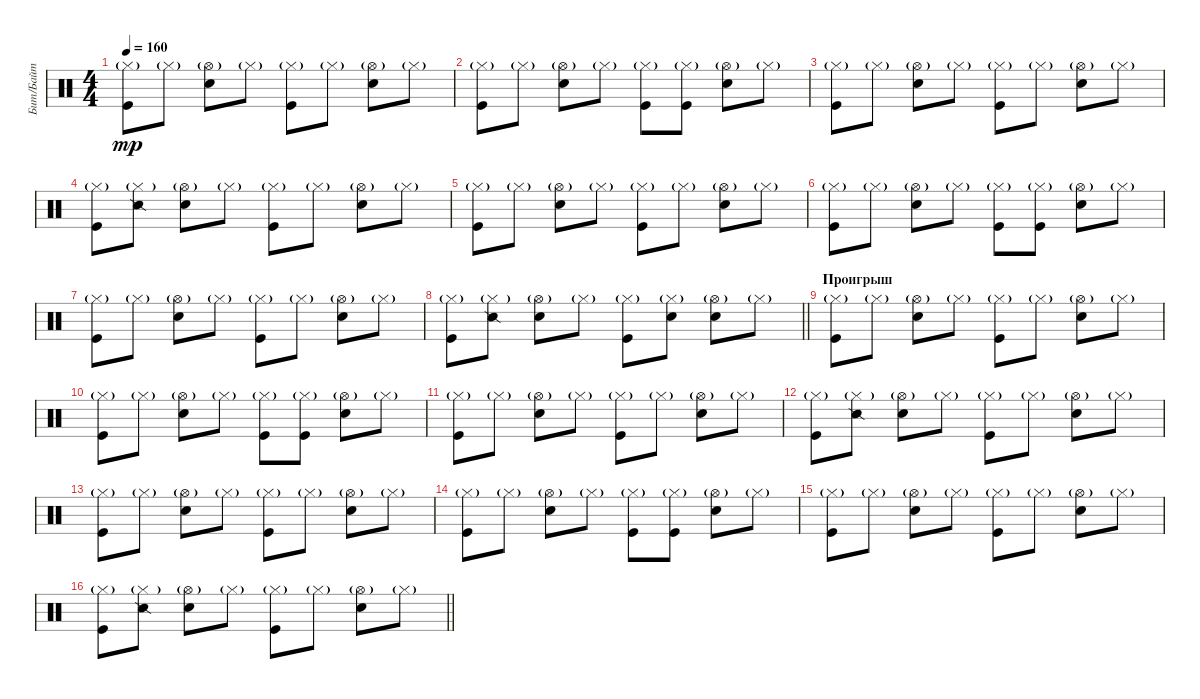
\track ("Бит/Байт" "Бит/Байт") {instrument percussion}
\staff {score}
\articulation defaults
\ts (4 4)
\tempo 160
\clef neutral
\ks c
("Hi-Hat (closed)"{g} "Kick (hit)").8{dy mp} "Hi-Hat (closed)"{g}.8 ("Hi-Hat (open)"{g} "Snare (hit) 2").8 "Hi-Hat (closed)"{g}.8 ("Hi-Hat (closed)"{g} "Kick (hit)").8 "Hi-Hat (closed)"{g}.8 ("Hi-Hat (open)"{g} "Snare (hit) 2").8 "Hi-Hat (closed)"{g}.8 |
("Hi-Hat (closed)"{g} "Kick (hit)").8 "Hi-Hat (closed)"{g}.8 ("Hi-Hat (open)"{g} "Snare (hit) 2").8 "Hi-Hat (closed)"{g}.8 ("Hi-Hat (closed)"{g} "Kick (hit)").8 ("Hi-Hat (closed)"{g} "Kick (hit)").8 ("Hi-Hat (open)"{g} "Snare (hit) 2").8 "Hi-Hat (closed)"{g}.8 |
("Hi-Hat (closed)"{g} "Kick (hit)").8 "Hi-Hat (closed)"{g}.8 ("Hi-Hat (open)"{g} "Snare (hit) 2").8 "Hi-Hat (closed)"{g}.8 ("Hi-Hat (closed)"{g} "Kick (hit)").8 "Hi-Hat (closed)"{g}.8 ("Hi-Hat (open)"{g} "Snare (hit) 2").8 "Hi-Hat (closed)"{g}.8 |
("Hi-Hat (closed)"{g} "Kick (hit)").8 ("Hi-Hat (closed)"{g} "Snare (side stick) 2").8 ("Hi-Hat (open)"{g} "Snare (hit) 2").8 "Hi-Hat (closed)"{g}.8 ("Hi-Hat (closed)"{g} "Kick (hit)").8 "Hi-Hat (closed)"{g}.8 ("Hi-Hat (open)"{g} "Snare (hit) 2").8 "Hi-Hat (closed)"{g}.8 |
("Hi-Hat (closed)"{g} "Kick (hit)").8 "Hi-Hat (closed)"{g}.8 ("Hi-Hat (open)"{g} "Snare (hit) 2").8 "Hi-Hat (closed)"{g}.8 ("Hi-Hat (closed)"{g} "Kick (hit)").8 "Hi-Hat (closed)"{g}.8 ("Hi-Hat (open)"{g} "Snare (hit) 2").8 "Hi-Hat (closed)"{g}.8 |
("Hi-Hat (closed)"{g} "Kick (hit)").8 "Hi-Hat (closed)"{g}.8 ("Hi-Hat (open)"{g} "Snare (hit) 2").8 "Hi-Hat (closed)"{g}.8 ("Hi-Hat (closed)"{g} "Kick (hit)").8 ("Hi-Hat (closed)"{g} "Kick (hit)").8 ("Hi-Hat (open)"{g} "Snare (hit) 2").8 "Hi-Hat (closed)"{g}.8 |
("Hi-Hat (closed)"{g} "Kick (hit)").8 "Hi-Hat (closed)"{g}.8 ("Hi-Hat (open)"{g} "Snare (hit) 2").8 "Hi-Hat (closed)"{g}.8 ("Hi-Hat (closed)"{g} "Kick (hit)").8 "Hi-Hat (closed)"{g}.8 ("Hi-Hat (open)"{g} "Snare (hit) 2").8 "Hi-Hat (closed)"{g}.8 |
\barLineRight lightlight
("Hi-Hat (closed)"{g} "Kick (hit)").8 ("Hi-Hat (closed)"{g} "Snare (side stick) 2").8 ("Hi-Hat (open)"{g} "Snare (hit) 2").8 "Hi-Hat (closed)"{g}.8 ("Hi-Hat (closed)"{g} "Kick (hit)").8 ("Hi-Hat (closed)"{g} "Snare (hit) 2").8 ("Hi-Hat (open)"{g} "Snare (hit) 2").8 "Hi-Hat (closed)"{g}.8 |
\section ("" "Проигрыш")
("Hi-Hat (closed)"{g} "Kick (hit)").8 "Hi-Hat (closed)"{g}.8 ("Hi-Hat (open)"{g} "Snare (hit) 2").8 "Hi-Hat (closed)"{g}.8 ("Hi-Hat (closed)"{g} "Kick (hit)").8 "Hi-Hat (closed)"{g}.8 ("Hi-Hat (open)"{g} "Snare (hit) 2").8 "Hi-Hat (closed)"{g}.8 |
("Hi-Hat (closed)"{g} "Kick (hit)").8 "Hi-Hat (closed)"{g}.8 ("Hi-Hat (open)"{g} "Snare (hit) 2").8 "Hi-Hat (closed)"{g}.8 ("Hi-Hat (closed)"{g} "Kick (hit)").8 ("Hi-Hat (closed)"{g} "Kick (hit)").8 ("Hi-Hat (open)"{g} "Snare (hit) 2").8 "Hi-Hat (closed)"{g}.8 |
("Hi-Hat (closed)"{g} "Kick (hit)").8 "Hi-Hat (closed)"{g}.8 ("Hi-Hat (open)"{g} "Snare (hit) 2").8 "Hi-Hat (closed)"{g}.8 ("Hi-Hat (closed)"{g} "Kick (hit)").8 "Hi-Hat (closed)"{g}.8 ("Hi-Hat (open)"{g} "Snare (hit) 2").8 "Hi-Hat (closed)"{g}.8 |
("Hi-Hat (closed)"{g} "Kick (hit)").8 ("Hi-Hat (closed)"{g} "Snare (side stick) 2").8 ("Hi-Hat (open)"{g} "Snare (hit) 2").8 "Hi-Hat (closed)"{g}.8 ("Hi-Hat (closed)"{g} "Kick (hit)").8 "Hi-Hat (closed)"{g}.8 ("Hi-Hat (open)"{g} "Snare (hit) 2").8 "Hi-Hat (closed)"{g}.8 |
("Hi-Hat (closed)"{g} "Kick (hit)").8 "Hi-Hat (closed)"{g}.8 ("Hi-Hat (open)"{g} "Snare (hit) 2").8 "Hi-Hat (closed)"{g}.8 ("Hi-Hat (closed)"{g} "Kick (hit)").8 "Hi-Hat (closed)"{g}.8 ("Hi-Hat (open)"{g} "Snare (hit) 2").8 "Hi-Hat (closed)"{g}.8 |
("Hi-Hat (closed)"{g} "Kick (hit)").8 "Hi-Hat (closed)"{g}.8 ("Hi-Hat (open)"{g} "Snare (hit) 2").8 "Hi-Hat (closed)"{g}.8 ("Hi-Hat (closed)"{g} "Kick (hit)").8 ("Hi-Hat (closed)"{g} "Kick (hit)").8 ("Hi-Hat (open)"{g} "Snare (hit) 2").8 "Hi-Hat (closed)"{g}.8 |
("Hi-Hat (closed)"{g} "Kick (hit)").8 "Hi-Hat (closed)"{g}.8 ("Hi-Hat (open)"{g} "Snare (hit) 2").8 "Hi-Hat (closed)"{g}.8 ("Hi-Hat (closed)"{g} "Kick (hit)").8 "Hi-Hat (closed)"{g}.8 ("Hi-Hat (open)"{g} "Snare (hit) 2").8 "Hi-Hat (closed)"{g}.8 |
\barLineRight lightlight
("Hi-Hat (closed)"{g} "Kick (hit)").8 ("Hi-Hat (closed)"{g} "Snare (side stick) 2").8 ("Hi-Hat (open)"{g} "Snare (hit) 2").8 "Hi-Hat (closed)"{g}.8 ("Hi-Hat (closed)"{g} "Kick (hit)").8 "Hi-Hat (closed)"{g}.8 ("Hi-Hat (open)"{g} "Snare (hit) 2").8 "Hi-Hat (closed)"{g}.8
